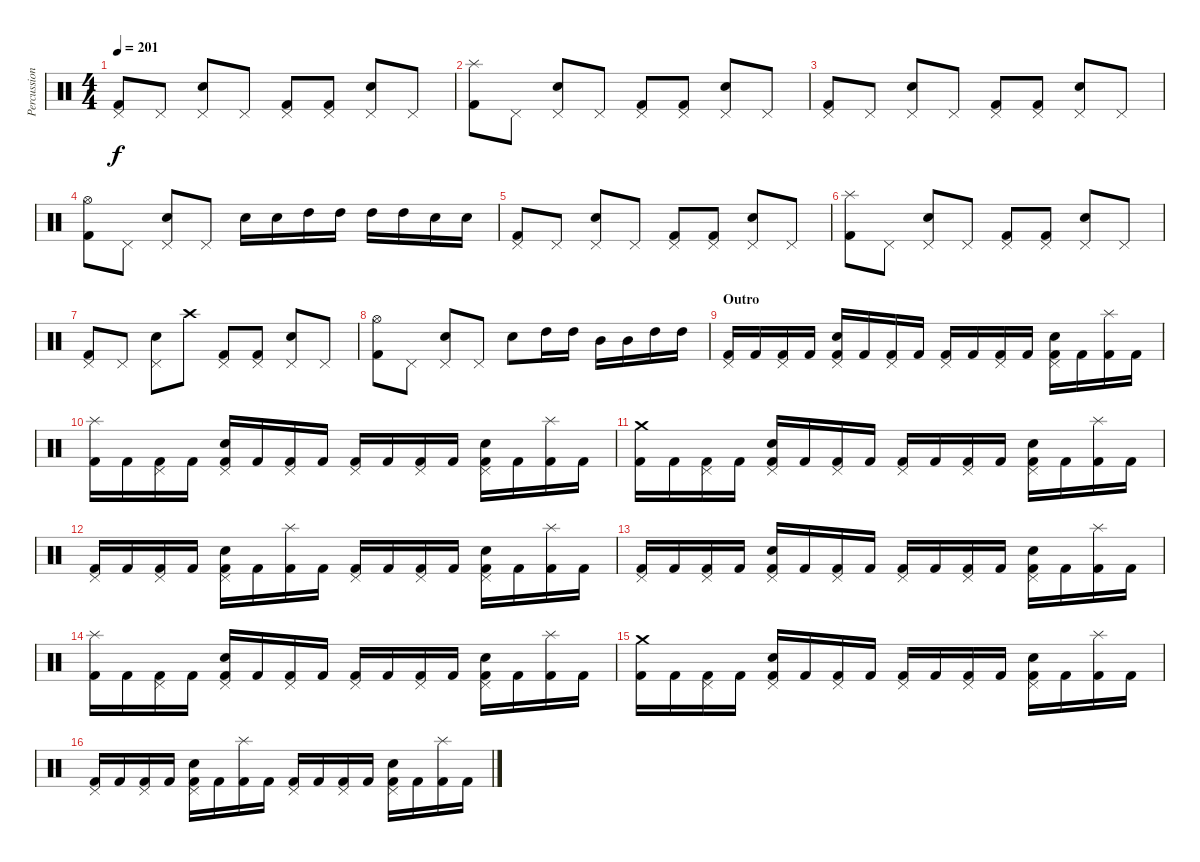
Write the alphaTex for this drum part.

\track ("Percussion" "Percussion") {instrument percussion}
\staff {score}
\articulation defaults
\ts (4 4)
\tempo 201
\clef neutral
\ks c
("Pedal Hi-Hat (hit)" "Kick (hit) 2").8{dy f} "Pedal Hi-Hat (hit)".8 ("Pedal Hi-Hat (hit)" "Snare (hit) 2").8 "Pedal Hi-Hat (hit)".8 ("Pedal Hi-Hat (hit)" "Kick (hit) 2").8 ("Pedal Hi-Hat (hit)" "Kick (hit) 2").8 ("Pedal Hi-Hat (hit)" "Snare (hit) 2").8 "Pedal Hi-Hat (hit)".8 |
("Splash (hit)" "Kick (hit) 2").8 "Pedal Hi-Hat (hit)".8 ("Pedal Hi-Hat (hit)" "Snare (hit) 2").8 "Pedal Hi-Hat (hit)".8 ("Pedal Hi-Hat (hit)" "Kick (hit) 2").8 ("Pedal Hi-Hat (hit)" "Kick (hit) 2").8 ("Pedal Hi-Hat (hit)" "Snare (hit) 2").8 "Pedal Hi-Hat (hit)".8 |
("Pedal Hi-Hat (hit)" "Kick (hit) 2").8 "Pedal Hi-Hat (hit)".8 ("Pedal Hi-Hat (hit)" "Snare (hit) 2").8 "Pedal Hi-Hat (hit)".8 ("Pedal Hi-Hat (hit)" "Kick (hit) 2").8 ("Pedal Hi-Hat (hit)" "Kick (hit) 2").8 ("Pedal Hi-Hat (hit)" "Snare (hit) 2").8 "Pedal Hi-Hat (hit)".8 |
("Hi-Hat (open)" "Kick (hit) 2").8 "Pedal Hi-Hat (hit)".8 ("Pedal Hi-Hat (hit)" "Snare (hit) 2").8 "Pedal Hi-Hat (hit)".8 "Snare (hit) 2".16 "Snare (hit) 2".16 "High Tom (hit)".16 "High Tom (hit)".16 "High Tom (hit)".16 "High Tom (hit)".16 "Snare (hit) 2".16 "Snare (hit) 2".16 |
("Pedal Hi-Hat (hit)" "Kick (hit) 2").8 "Pedal Hi-Hat (hit)".8 ("Pedal Hi-Hat (hit)" "Snare (hit) 2").8 "Pedal Hi-Hat (hit)".8 ("Pedal Hi-Hat (hit)" "Kick (hit) 2").8 ("Pedal Hi-Hat (hit)" "Kick (hit) 2").8 ("Pedal Hi-Hat (hit)" "Snare (hit) 2").8 "Pedal Hi-Hat (hit)".8 |
("Splash (hit)" "Kick (hit) 2").8 "Pedal Hi-Hat (hit)".8 ("Pedal Hi-Hat (hit)" "Snare (hit) 2").8 "Pedal Hi-Hat (hit)".8 ("Pedal Hi-Hat (hit)" "Kick (hit) 2").8 ("Pedal Hi-Hat (hit)" "Kick (hit) 2").8 ("Pedal Hi-Hat (hit)" "Snare (hit) 2").8 "Pedal Hi-Hat (hit)".8 |
("Pedal Hi-Hat (hit)" "Kick (hit) 2").8 "Pedal Hi-Hat (hit)".8 ("Pedal Hi-Hat (hit)" "Snare (hit) 2").8 "Crash high (hit)".8 ("Pedal Hi-Hat (hit)" "Kick (hit) 2").8 ("Pedal Hi-Hat (hit)" "Kick (hit) 2").8 ("Pedal Hi-Hat (hit)" "Snare (hit) 2").8 "Pedal Hi-Hat (hit)".8 |
("Hi-Hat (open)" "Kick (hit) 2").8 "Pedal Hi-Hat (hit)".8 ("Pedal Hi-Hat (hit)" "Snare (hit) 2").8 "Pedal Hi-Hat (hit)".8 "Snare (hit) 2".8 "High Tom (hit)".16 "High Tom (hit)".16 "Mid Tom (hit)".16 "Mid Tom (hit)".16 "High Tom (hit)".16 "High Tom (hit)".16 |
\section ("" "Outro")
("Pedal Hi-Hat (hit)" "Kick (hit) 2").16 "Kick (hit) 2".16 ("Pedal Hi-Hat (hit)" "Kick (hit) 2").16 "Kick (hit) 2".16 ("Pedal Hi-Hat (hit)" "Snare (hit) 2" "Kick (hit) 2").16 "Kick (hit) 2".16 ("Pedal Hi-Hat (hit)" "Kick (hit) 2").16 "Kick (hit) 2".16 ("Pedal Hi-Hat (hit)" "Kick (hit) 2").16 "Kick (hit) 2".16 ("Pedal Hi-Hat (hit)" "Kick (hit) 2").16 "Kick (hit) 2".16 ("Pedal Hi-Hat (hit)" "Snare (hit) 2" "Kick (hit) 2").16 "Kick (hit) 2".16 ("Splash (hit)" "Kick (hit) 2").16 "Kick (hit) 2".16 |
("Splash (hit)" "Kick (hit) 2").16 "Kick (hit) 2".16 ("Pedal Hi-Hat (hit)" "Kick (hit) 2").16 "Kick (hit) 2".16 ("Pedal Hi-Hat (hit)" "Snare (hit) 2" "Kick (hit) 2").16 "Kick (hit) 2".16 ("Pedal Hi-Hat (hit)" "Kick (hit) 2").16 "Kick (hit) 2".16 ("Pedal Hi-Hat (hit)" "Kick (hit) 2").16 "Kick (hit) 2".16 ("Pedal Hi-Hat (hit)" "Kick (hit) 2").16 "Kick (hit) 2".16 ("Pedal Hi-Hat (hit)" "Snare (hit) 2" "Kick (hit) 2").16 "Kick (hit) 2".16 ("Splash (hit)" "Kick (hit) 2").16 "Kick (hit) 2".16 |
("Crash medium (hit)" "Kick (hit) 2").16 "Kick (hit) 2".16 ("Pedal Hi-Hat (hit)" "Kick (hit) 2").16 "Kick (hit) 2".16 ("Pedal Hi-Hat (hit)" "Snare (hit) 2" "Kick (hit) 2").16 "Kick (hit) 2".16 ("Pedal Hi-Hat (hit)" "Kick (hit) 2").16 "Kick (hit) 2".16 ("Pedal Hi-Hat (hit)" "Kick (hit) 2").16 "Kick (hit) 2".16 ("Pedal Hi-Hat (hit)" "Kick (hit) 2").16 "Kick (hit) 2".16 ("Pedal Hi-Hat (hit)" "Snare (hit) 2" "Kick (hit) 2").16 "Kick (hit) 2".16 ("Splash (hit)" "Kick (hit) 2").16 "Kick (hit) 2".16 |
("Pedal Hi-Hat (hit)" "Kick (hit) 2").16 "Kick (hit) 2".16 ("Pedal Hi-Hat (hit)" "Kick (hit) 2").16 "Kick (hit) 2".16 ("Pedal Hi-Hat (hit)" "Snare (hit) 2" "Kick (hit) 2").16 "Kick (hit) 2".16 ("Splash (hit)" "Kick (hit) 2").16 "Kick (hit) 2".16 ("Pedal Hi-Hat (hit)" "Kick (hit) 2").16 "Kick (hit) 2".16 ("Pedal Hi-Hat (hit)" "Kick (hit) 2").16 "Kick (hit) 2".16 ("Pedal Hi-Hat (hit)" "Snare (hit) 2" "Kick (hit) 2").16 "Kick (hit) 2".16 ("Splash (hit)" "Kick (hit) 2").16 "Kick (hit) 2".16 |
("Pedal Hi-Hat (hit)" "Kick (hit) 2").16 "Kick (hit) 2".16 ("Pedal Hi-Hat (hit)" "Kick (hit) 2").16 "Kick (hit) 2".16 ("Pedal Hi-Hat (hit)" "Snare (hit) 2" "Kick (hit) 2").16 "Kick (hit) 2".16 ("Pedal Hi-Hat (hit)" "Kick (hit) 2").16 "Kick (hit) 2".16 ("Pedal Hi-Hat (hit)" "Kick (hit) 2").16 "Kick (hit) 2".16 ("Pedal Hi-Hat (hit)" "Kick (hit) 2").16 "Kick (hit) 2".16 ("Pedal Hi-Hat (hit)" "Snare (hit) 2" "Kick (hit) 2").16 "Kick (hit) 2".16 ("Splash (hit)" "Kick (hit) 2").16 "Kick (hit) 2".16 |
("Splash (hit)" "Kick (hit) 2").16 "Kick (hit) 2".16 ("Pedal Hi-Hat (hit)" "Kick (hit) 2").16 "Kick (hit) 2".16 ("Pedal Hi-Hat (hit)" "Snare (hit) 2" "Kick (hit) 2").16 "Kick (hit) 2".16 ("Pedal Hi-Hat (hit)" "Kick (hit) 2").16 "Kick (hit) 2".16 ("Pedal Hi-Hat (hit)" "Kick (hit) 2").16 "Kick (hit) 2".16 ("Pedal Hi-Hat (hit)" "Kick (hit) 2").16 "Kick (hit) 2".16 ("Pedal Hi-Hat (hit)" "Snare (hit) 2" "Kick (hit) 2").16 "Kick (hit) 2".16 ("Splash (hit)" "Kick (hit) 2").16 "Kick (hit) 2".16 |
("Crash medium (hit)" "Kick (hit) 2").16 "Kick (hit) 2".16 ("Pedal Hi-Hat (hit)" "Kick (hit) 2").16 "Kick (hit) 2".16 ("Pedal Hi-Hat (hit)" "Snare (hit) 2" "Kick (hit) 2").16 "Kick (hit) 2".16 ("Pedal Hi-Hat (hit)" "Kick (hit) 2").16 "Kick (hit) 2".16 ("Pedal Hi-Hat (hit)" "Kick (hit) 2").16 "Kick (hit) 2".16 ("Pedal Hi-Hat (hit)" "Kick (hit) 2").16 "Kick (hit) 2".16 ("Pedal Hi-Hat (hit)" "Snare (hit) 2" "Kick (hit) 2").16 "Kick (hit) 2".16 ("Splash (hit)" "Kick (hit) 2").16 "Kick (hit) 2".16 |
("Pedal Hi-Hat (hit)" "Kick (hit) 2").16 "Kick (hit) 2".16 ("Pedal Hi-Hat (hit)" "Kick (hit) 2").16 "Kick (hit) 2".16 ("Pedal Hi-Hat (hit)" "Snare (hit) 2" "Kick (hit) 2").16 "Kick (hit) 2".16 ("Splash (hit)" "Kick (hit) 2").16 "Kick (hit) 2".16 ("Pedal Hi-Hat (hit)" "Kick (hit) 2").16 "Kick (hit) 2".16 ("Pedal Hi-Hat (hit)" "Kick (hit) 2").16 "Kick (hit) 2".16 ("Pedal Hi-Hat (hit)" "Snare (hit) 2" "Kick (hit) 2").16 "Kick (hit) 2".16 ("Splash (hit)" "Kick (hit) 2").16 "Kick (hit) 2".16
